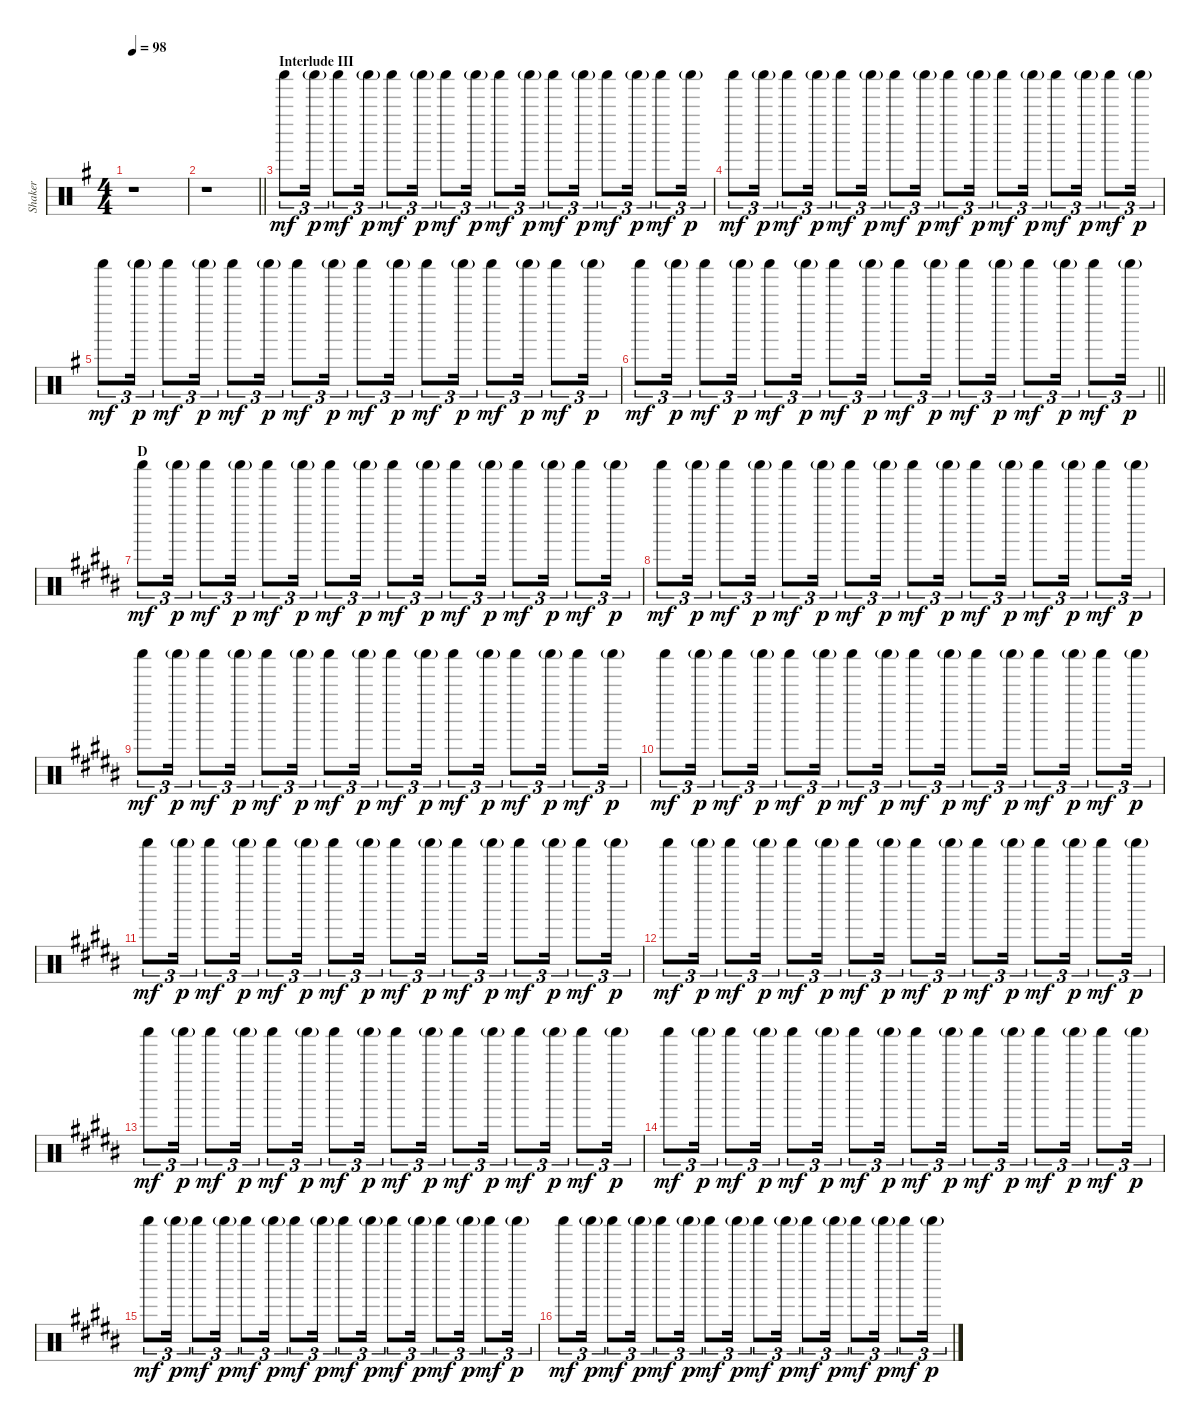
\track ("Shaker" "Shaker") {instrument percussion}
\staff {score}
\articulation defaults
\ts (4 4)
\tempo 98
\clef neutral
\ks g
r.1{dy mf} |
\barLineRight lightlight
r.1 |
\section ("" "Interlude III")
"Shaker (hit)".8{tu (3 2)} "Shaker (hit)"{g}.16{tu (3 2) dy p} "Shaker (hit)".8{tu (3 2) dy mf} "Shaker (hit)"{g}.16{tu (3 2) dy p} "Shaker (hit)".8{tu (3 2) dy mf} "Shaker (hit)"{g}.16{tu (3 2) dy p} "Shaker (hit)".8{tu (3 2) dy mf} "Shaker (hit)"{g}.16{tu (3 2) dy p} "Shaker (hit)".8{tu (3 2) dy mf} "Shaker (hit)"{g}.16{tu (3 2) dy p} "Shaker (hit)".8{tu (3 2) dy mf} "Shaker (hit)"{g}.16{tu (3 2) dy p} "Shaker (hit)".8{tu (3 2) dy mf} "Shaker (hit)"{g}.16{tu (3 2) dy p} "Shaker (hit)".8{tu (3 2) dy mf} "Shaker (hit)"{g}.16{tu (3 2) dy p} |
"Shaker (hit)".8{tu (3 2) dy mf} "Shaker (hit)"{g}.16{tu (3 2) dy p} "Shaker (hit)".8{tu (3 2) dy mf} "Shaker (hit)"{g}.16{tu (3 2) dy p} "Shaker (hit)".8{tu (3 2) dy mf} "Shaker (hit)"{g}.16{tu (3 2) dy p} "Shaker (hit)".8{tu (3 2) dy mf} "Shaker (hit)"{g}.16{tu (3 2) dy p} "Shaker (hit)".8{tu (3 2) dy mf} "Shaker (hit)"{g}.16{tu (3 2) dy p} "Shaker (hit)".8{tu (3 2) dy mf} "Shaker (hit)"{g}.16{tu (3 2) dy p} "Shaker (hit)".8{tu (3 2) dy mf} "Shaker (hit)"{g}.16{tu (3 2) dy p} "Shaker (hit)".8{tu (3 2) dy mf} "Shaker (hit)"{g}.16{tu (3 2) dy p} |
"Shaker (hit)".8{tu (3 2) dy mf} "Shaker (hit)"{g}.16{tu (3 2) dy p} "Shaker (hit)".8{tu (3 2) dy mf} "Shaker (hit)"{g}.16{tu (3 2) dy p} "Shaker (hit)".8{tu (3 2) dy mf} "Shaker (hit)"{g}.16{tu (3 2) dy p} "Shaker (hit)".8{tu (3 2) dy mf} "Shaker (hit)"{g}.16{tu (3 2) dy p} "Shaker (hit)".8{tu (3 2) dy mf} "Shaker (hit)"{g}.16{tu (3 2) dy p} "Shaker (hit)".8{tu (3 2) dy mf} "Shaker (hit)"{g}.16{tu (3 2) dy p} "Shaker (hit)".8{tu (3 2) dy mf} "Shaker (hit)"{g}.16{tu (3 2) dy p} "Shaker (hit)".8{tu (3 2) dy mf} "Shaker (hit)"{g}.16{tu (3 2) dy p} |
\barLineRight lightlight "Shaker (hit)".8{tu (3 2) dy mf} "Shaker (hit)"{g}.16{tu (3 2) dy p} "Shaker (hit)".8{tu (3 2) dy mf} "Shaker (hit)"{g}.16{tu (3 2) dy p} "Shaker (hit)".8{tu (3 2) dy mf} "Shaker (hit)"{g}.16{tu (3 2) dy p} "Shaker (hit)".8{tu (3 2) dy mf} "Shaker (hit)"{g}.16{tu (3 2) dy p} "Shaker (hit)".8{tu (3 2) dy mf} "Shaker (hit)"{g}.16{tu (3 2) dy p} "Shaker (hit)".8{tu (3 2) dy mf} "Shaker (hit)"{g}.16{tu (3 2) dy p} "Shaker (hit)".8{tu (3 2) dy mf} "Shaker (hit)"{g}.16{tu (3 2) dy p} "Shaker (hit)".8{tu (3 2) dy mf} "Shaker (hit)"{g}.16{tu (3 2) dy p}
|
\section ("" "D")
\ks b "Shaker (hit)".8{tu (3 2) dy mf} "Shaker (hit)"{g}.16{tu (3 2) dy p} "Shaker (hit)".8{tu (3 2) dy mf} "Shaker (hit)"{g}.16{tu (3 2) dy p} "Shaker (hit)".8{tu (3 2) dy mf} "Shaker (hit)"{g}.16{tu (3 2) dy p} "Shaker (hit)".8{tu (3 2) dy mf} "Shaker (hit)"{g}.16{tu (3 2) dy p} "Shaker (hit)".8{tu (3 2) dy mf} "Shaker (hit)"{g}.16{tu (3 2) dy p} "Shaker (hit)".8{tu (3 2) dy mf} "Shaker (hit)"{g}.16{tu (3 2) dy p} "Shaker (hit)".8{tu (3 2) dy mf} "Shaker (hit)"{g}.16{tu (3 2) dy p} "Shaker (hit)".8{tu (3 2) dy mf} "Shaker (hit)"{g}.16{tu (3 2) dy p}
|
"Shaker (hit)".8{tu (3 2) dy mf} "Shaker (hit)"{g}.16{tu (3 2) dy p} "Shaker (hit)".8{tu (3 2) dy mf} "Shaker (hit)"{g}.16{tu (3 2) dy p} "Shaker (hit)".8{tu (3 2) dy mf} "Shaker (hit)"{g}.16{tu (3 2) dy p} "Shaker (hit)".8{tu (3 2) dy mf} "Shaker (hit)"{g}.16{tu (3 2) dy p} "Shaker (hit)".8{tu (3 2) dy mf} "Shaker (hit)"{g}.16{tu (3 2) dy p} "Shaker (hit)".8{tu (3 2) dy mf} "Shaker (hit)"{g}.16{tu (3 2) dy p} "Shaker (hit)".8{tu (3 2) dy mf} "Shaker (hit)"{g}.16{tu (3 2) dy p} "Shaker (hit)".8{tu (3 2) dy mf} "Shaker (hit)"{g}.16{tu (3 2) dy p} |
"Shaker (hit)".8{tu (3 2) dy mf} "Shaker (hit)"{g}.16{tu (3 2) dy p} "Shaker (hit)".8{tu (3 2) dy mf} "Shaker (hit)"{g}.16{tu (3 2) dy p} "Shaker (hit)".8{tu (3 2) dy mf} "Shaker (hit)"{g}.16{tu (3 2) dy p} "Shaker (hit)".8{tu (3 2) dy mf} "Shaker (hit)"{g}.16{tu (3 2) dy p} "Shaker (hit)".8{tu (3 2) dy mf} "Shaker (hit)"{g}.16{tu (3 2) dy p} "Shaker (hit)".8{tu (3 2) dy mf} "Shaker (hit)"{g}.16{tu (3 2) dy p} "Shaker (hit)".8{tu (3 2) dy mf} "Shaker (hit)"{g}.16{tu (3 2) dy p} "Shaker (hit)".8{tu (3 2) dy mf} "Shaker (hit)"{g}.16{tu (3 2) dy p} |
"Shaker (hit)".8{tu (3 2) dy mf} "Shaker (hit)"{g}.16{tu (3 2) dy p} "Shaker (hit)".8{tu (3 2) dy mf} "Shaker (hit)"{g}.16{tu (3 2) dy p} "Shaker (hit)".8{tu (3 2) dy mf} "Shaker (hit)"{g}.16{tu (3 2) dy p} "Shaker (hit)".8{tu (3 2) dy mf} "Shaker (hit)"{g}.16{tu (3 2) dy p} "Shaker (hit)".8{tu (3 2) dy mf} "Shaker (hit)"{g}.16{tu (3 2) dy p} "Shaker (hit)".8{tu (3 2) dy mf} "Shaker (hit)"{g}.16{tu (3 2) dy p} "Shaker (hit)".8{tu (3 2) dy mf} "Shaker (hit)"{g}.16{tu (3 2) dy p} "Shaker (hit)".8{tu (3 2) dy mf} "Shaker (hit)"{g}.16{tu (3 2) dy p} |
"Shaker (hit)".8{tu (3 2) dy mf} "Shaker (hit)"{g}.16{tu (3 2) dy p} "Shaker (hit)".8{tu (3 2) dy mf} "Shaker (hit)"{g}.16{tu (3 2) dy p} "Shaker (hit)".8{tu (3 2) dy mf} "Shaker (hit)"{g}.16{tu (3 2) dy p} "Shaker (hit)".8{tu (3 2) dy mf} "Shaker (hit)"{g}.16{tu (3 2) dy p} "Shaker (hit)".8{tu (3 2) dy mf} "Shaker (hit)"{g}.16{tu (3 2) dy p} "Shaker (hit)".8{tu (3 2) dy mf} "Shaker (hit)"{g}.16{tu (3 2) dy p} "Shaker (hit)".8{tu (3 2) dy mf} "Shaker (hit)"{g}.16{tu (3 2) dy p} "Shaker (hit)".8{tu (3 2) dy mf} "Shaker (hit)"{g}.16{tu (3 2) dy p} |
"Shaker (hit)".8{tu (3 2) dy mf} "Shaker (hit)"{g}.16{tu (3 2) dy p} "Shaker (hit)".8{tu (3 2) dy mf} "Shaker (hit)"{g}.16{tu (3 2) dy p} "Shaker (hit)".8{tu (3 2) dy mf} "Shaker (hit)"{g}.16{tu (3 2) dy p} "Shaker (hit)".8{tu (3 2) dy mf} "Shaker (hit)"{g}.16{tu (3 2) dy p} "Shaker (hit)".8{tu (3 2) dy mf} "Shaker (hit)"{g}.16{tu (3 2) dy p} "Shaker (hit)".8{tu (3 2) dy mf} "Shaker (hit)"{g}.16{tu (3 2) dy p} "Shaker (hit)".8{tu (3 2) dy mf} "Shaker (hit)"{g}.16{tu (3 2) dy p} "Shaker (hit)".8{tu (3 2) dy mf} "Shaker (hit)"{g}.16{tu (3 2) dy p} |
"Shaker (hit)".8{tu (3 2) dy mf} "Shaker (hit)"{g}.16{tu (3 2) dy p} "Shaker (hit)".8{tu (3 2) dy mf} "Shaker (hit)"{g}.16{tu (3 2) dy p} "Shaker (hit)".8{tu (3 2) dy mf} "Shaker (hit)"{g}.16{tu (3 2) dy p} "Shaker (hit)".8{tu (3 2) dy mf} "Shaker (hit)"{g}.16{tu (3 2) dy p} "Shaker (hit)".8{tu (3 2) dy mf} "Shaker (hit)"{g}.16{tu (3 2) dy p} "Shaker (hit)".8{tu (3 2) dy mf} "Shaker (hit)"{g}.16{tu (3 2) dy p} "Shaker (hit)".8{tu (3 2) dy mf} "Shaker (hit)"{g}.16{tu (3 2) dy p} "Shaker (hit)".8{tu (3 2) dy mf} "Shaker (hit)"{g}.16{tu (3 2) dy p} |
"Shaker (hit)".8{tu (3 2) dy mf} "Shaker (hit)"{g}.16{tu (3 2) dy p} "Shaker (hit)".8{tu (3 2) dy mf} "Shaker (hit)"{g}.16{tu (3 2) dy p} "Shaker (hit)".8{tu (3 2) dy mf} "Shaker (hit)"{g}.16{tu (3 2) dy p} "Shaker (hit)".8{tu (3 2) dy mf} "Shaker (hit)"{g}.16{tu (3 2) dy p} "Shaker (hit)".8{tu (3 2) dy mf} "Shaker (hit)"{g}.16{tu (3 2) dy p} "Shaker (hit)".8{tu (3 2) dy mf} "Shaker (hit)"{g}.16{tu (3 2) dy p} "Shaker (hit)".8{tu (3 2) dy mf} "Shaker (hit)"{g}.16{tu (3 2) dy p} "Shaker (hit)".8{tu (3 2) dy mf} "Shaker (hit)"{g}.16{tu (3 2) dy p} |
"Shaker (hit)".8{tu (3 2) dy mf} "Shaker (hit)"{g}.16{tu (3 2) dy p} "Shaker (hit)".8{tu (3 2) dy mf} "Shaker (hit)"{g}.16{tu (3 2) dy p} "Shaker (hit)".8{tu (3 2) dy mf} "Shaker (hit)"{g}.16{tu (3 2) dy p} "Shaker (hit)".8{tu (3 2) dy mf} "Shaker (hit)"{g}.16{tu (3 2) dy p} "Shaker (hit)".8{tu (3 2) dy mf} "Shaker (hit)"{g}.16{tu (3 2) dy p} "Shaker (hit)".8{tu (3 2) dy mf} "Shaker (hit)"{g}.16{tu (3 2) dy p} "Shaker (hit)".8{tu (3 2) dy mf} "Shaker (hit)"{g}.16{tu (3 2) dy p} "Shaker (hit)".8{tu (3 2) dy mf} "Shaker (hit)"{g}.16{tu (3 2) dy p} |
"Shaker (hit)".8{tu (3 2) dy mf} "Shaker (hit)"{g}.16{tu (3 2) dy p} "Shaker (hit)".8{tu (3 2) dy mf} "Shaker (hit)"{g}.16{tu (3 2) dy p} "Shaker (hit)".8{tu (3 2) dy mf} "Shaker (hit)"{g}.16{tu (3 2) dy p} "Shaker (hit)".8{tu (3 2) dy mf} "Shaker (hit)"{g}.16{tu (3 2) dy p} "Shaker (hit)".8{tu (3 2) dy mf} "Shaker (hit)"{g}.16{tu (3 2) dy p} "Shaker (hit)".8{tu (3 2) dy mf} "Shaker (hit)"{g}.16{tu (3 2) dy p} "Shaker (hit)".8{tu (3 2) dy mf} "Shaker (hit)"{g}.16{tu (3 2) dy p} "Shaker (hit)".8{tu (3 2) dy mf} "Shaker (hit)"{g}.16{tu (3 2) dy p}
